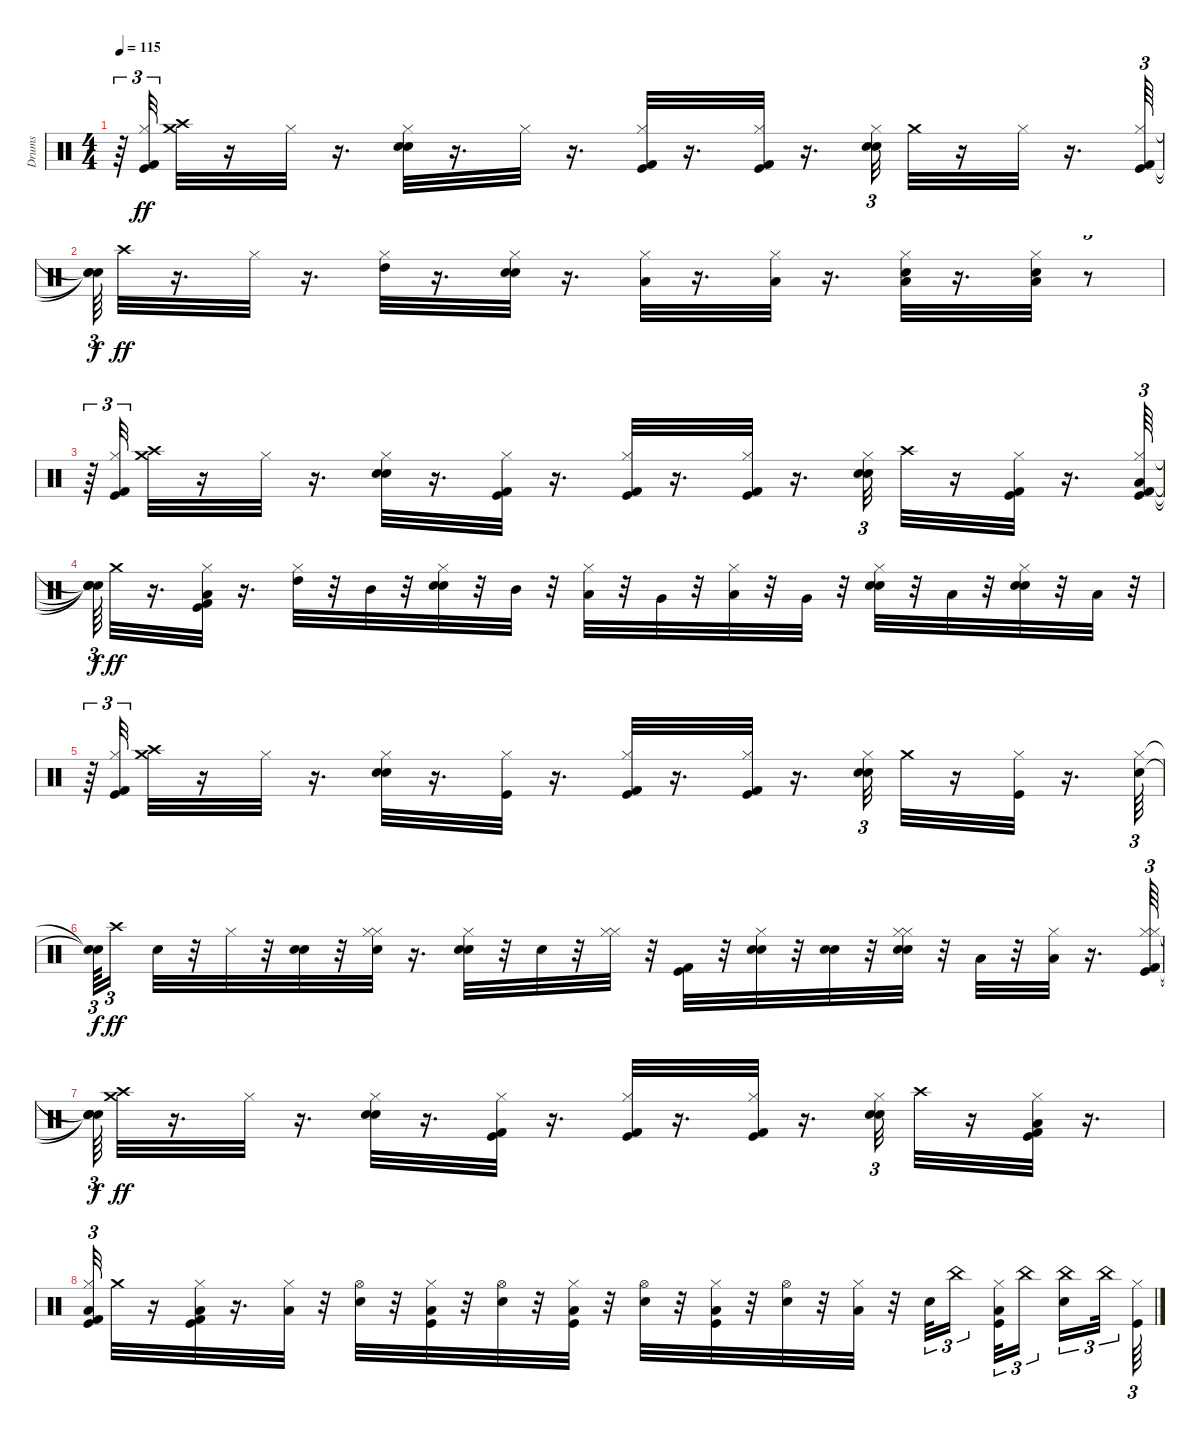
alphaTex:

\track ("Drums" "Drums") {instrument percussion}
\staff {score}
\articulation defaults
\ts (4 4)
\tempo 115
\clef neutral
\ks c
r.64{tu (3 2) dy ff} ("Kick (hit)" "Hi-Hat (closed)" "Kick (hit) 2").32{tu (3 2)} ("Crash medium (hit)" "Crash high (hit)").32 r.16 "Hi-Hat (closed)".32 r.16{d} ("Electric Snare (hit)" "Snare (hit) 2" "Hi-Hat (closed)").32 r.16{d} "Hi-Hat (closed)".32 r.16{d} ("Kick (hit) 2" "Kick (hit)" "Hi-Hat (closed)").32 r.16{d} ("Hi-Hat (closed)" "Kick (hit)" "Kick (hit) 2").32 r.16{d} ("Electric Snare (hit)" "Snare (hit) 2" "Hi-Hat (closed)").32{tu (3 2)} "Crash medium (hit)".32 r.16 "Hi-Hat (closed)".32 r.16{d} ("Kick (hit)" "Kick (hit) 2" "Hi-Hat (closed)").64{tu (3 2)} |
("Snare (hit)"{t} "Snare (hit)"{t} "Snare (hit)"{t}).64{tu (3 2) dy f} "Crash high (hit)".32{dy ff} r.16{d} "Hi-Hat (closed)".32 r.16{d} ("High Tom (hit)" "Hi-Hat (closed)").32 r.16{d} ("Snare (hit) 2" "Hi-Hat (closed)" "Electric Snare (hit)").32 r.16{d} ("Low Tom (hit)" "Hi-Hat (closed)").32 r.16{d} ("Low Tom (hit)" "Hi-Hat (closed)").32 r.16{d} ("Low Floor Tom (hit)" "Hi-Hat (closed)" "Snare (hit) 2").32 r.16{d} ("Snare (hit) 2" "Hi-Hat (closed)" "Low Floor Tom (hit)").32 r.8{tu (3 2)} |
r.64{tu (3 2)} ("Kick (hit) 2" "Hi-Hat (closed)" "Kick (hit)").32{tu (3 2)} ("Crash high (hit)" "Crash medium (hit)").32 r.16 "Hi-Hat (closed)".32 r.16{d} ("Hi-Hat (closed)" "Electric Snare (hit)" "Snare (hit) 2").32 r.16{d} ("Kick (hit)" "Kick (hit) 2" "Hi-Hat (closed)").32 r.16{d} ("Hi-Hat (closed)" "Kick (hit)" "Kick (hit) 2").32 r.16{d} ("Hi-Hat (closed)" "Kick (hit)" "Kick (hit) 2").32 r.16{d} ("Electric Snare (hit)" "Snare (hit) 2" "Hi-Hat (closed)").32{tu (3 2)} "Crash high (hit)".32 r.16 ("Kick (hit)" "Kick (hit) 2" "Hi-Hat (closed)").32 r.16{d} ("Hi-Hat (closed)" "Low Floor Tom (hit)" "Kick (hit)" "Kick (hit) 2").64{tu (3 2)} |
("Snare (hit)"{t} "Snare (hit)"{t} "Snare (hit)"{t} "Snare (hit)"{t}).64{tu (3 2) dy f} "Crash medium (hit)".32{dy ff} r.16{d} ("Kick (hit)" "Low Floor Tom (hit)" "Hi-Hat (closed)" "Kick (hit) 2").32 r.16{d} ("High Tom (hit)" "Hi-Hat (closed)").32 r.32 "Mid Tom (hit)".32 r.32 ("Hi-Hat (closed)" "Electric Snare (hit)" "Snare (hit) 2").32 r.32 "Mid Tom (hit)".32 r.32 ("Low Tom (hit)" "Hi-Hat (closed)").32 r.32 "Very Low Tom (hit)".32 r.32 ("Low Tom (hit)" "Hi-Hat (closed)").32 r.32 "Very Low Tom (hit)".32 r.32 ("Electric Snare (hit)" "Hi-Hat (closed)" "Snare (hit) 2").32 r.32 "Low Floor Tom (hit)".32 r.32 ("Electric Snare (hit)" "Hi-Hat (closed)" "Snare (hit) 2").32 r.32 "Low Floor Tom (hit)".32 r.32{tu (3 2)} |
r.64{tu (3 2)} ("Kick (hit) 2" "Hi-Hat (closed)" "Kick (hit)").32{tu (3 2)} ("Crash medium (hit)" "Crash high (hit)").32 r.16 "Hi-Hat (closed)".32 r.16{d} ("Electric Snare (hit)" "Snare (hit) 2" "Hi-Hat (closed)").32 r.16{d} ("Hi-Hat (closed)" "Kick (hit)").32 r.16{d} ("Kick (hit) 2" "Hi-Hat (closed)" "Kick (hit)").32 r.16{d} ("Kick (hit) 2" "Kick (hit)" "Hi-Hat (closed)").32 r.16{d} ("Snare (hit) 2" "Electric Snare (hit)" "Hi-Hat (closed)").32{tu (3 2)} "Crash medium (hit)".32 r.16 ("Hi-Hat (closed)" "Kick (hit)").32 r.16{d} ("Snare (hit) 2" "Hi-Hat (closed)").64{tu (3 2)} |
("Snare (hit)"{t} "Snare (hit)"{t}).64{tu (3 2) dy f} "Crash high (hit)".16{tu (3 2) dy ff} "Snare (hit) 2".32 r.32 "Hi-Hat (closed)".32 r.32 ("Electric Snare (hit)" "Snare (hit) 2").32 r.32 ("Hi-Hat (closed)" "Snare (hit) 2" "Hi-Hat (closed)").32 r.16{d} ("Electric Snare (hit)" "Snare (hit) 2" "Hi-Hat (closed)").32 r.32 "Snare (hit) 2".32 r.32 ("Hi-Hat (closed)" "Hi-Hat (closed)").32 r.32 ("Kick (hit) 2" "Kick (hit)").32 r.32 ("Snare (hit) 2" "Hi-Hat (closed)" "Electric Snare (hit)").32 r.32 ("Electric Snare (hit)" "Snare (hit) 2").32 r.32 ("Hi-Hat (closed)" "Electric Snare (hit)" "Snare (hit) 2" "Hi-Hat (closed)").32 r.32 "Low Tom (hit)".32 r.32 ("Low Floor Tom (hit)" "Hi-Hat (closed)").32 r.16{d} ("Hi-Hat (closed)" "Kick (hit) 2" "Hi-Hat (closed)" "Kick (hit)").64{tu (3 2)} |
("Snare (hit)"{t} "Snare (hit)"{t} "Snare (hit)"{t} "Snare (hit)"{t}).64{tu (3 2) dy f} ("Crash medium (hit)" "Crash high (hit)").32{dy ff} r.16{d} "Hi-Hat (closed)".32 r.16{d} ("Snare (hit) 2" "Electric Snare (hit)" "Hi-Hat (closed)").32 r.16{d} ("Kick (hit)" "Kick (hit) 2" "Hi-Hat (closed)").32 r.16{d} ("Kick (hit)" "Hi-Hat (closed)" "Kick (hit) 2").32 r.16{d} ("Kick (hit) 2" "Hi-Hat (closed)" "Kick (hit)").32 r.16{d} ("Snare (hit) 2" "Electric Snare (hit)" "Hi-Hat (closed)").32{tu (3 2)} "Crash high (hit)".32 r.16 ("Kick (hit)" "Kick (hit) 2" "Hi-Hat (closed)" "Low Floor Tom (hit)").32 r.16{d} |
("Kick (hit)" "Kick (hit) 2" "Hi-Hat (closed)" "Low Floor Tom (hit)").32{tu (3 2)} "Crash medium (hit)".32 r.16 ("Hi-Hat (closed)" "Kick (hit) 2" "Low Floor Tom (hit)" "Kick (hit)").32 r.16{d} ("Low Floor Tom (hit)" "Hi-Hat (closed)").32 r.32 ("Hi-Hat (open)" "Snare (hit) 2").32 r.32 ("Low Floor Tom (hit)" "Hi-Hat (closed)" "Kick (hit)").32 r.32 ("Snare (hit) 2" "Hi-Hat (open)").32 r.32 ("Hi-Hat (closed)" "Kick (hit)" "Low Floor Tom (hit)").32 r.32 ("Hi-Hat (open)" "Snare (hit) 2").32 r.32 ("Low Floor Tom (hit)" "Kick (hit)" "Hi-Hat (closed)").32 r.32 ("Hi-Hat (open)" "Snare (hit) 2").32 r.32 ("Low Floor Tom (hit)" "Hi-Hat (closed)").32 r.32 "Snare (hit) 2".32{tu (3 2)} "China (hit)".16{tu (3 2)} ("Hi-Hat (closed)" "Low Floor Tom (hit)" "Kick (hit)").32{tu (3 2)} "China (hit)".16{tu (3 2)} ("Snare (hit) 2" "China (hit)").16{tu (3 2)} "China (hit)".32{tu (3 2)} ("Kick (hit)" "Hi-Hat (closed)").64{tu (3 2)}
